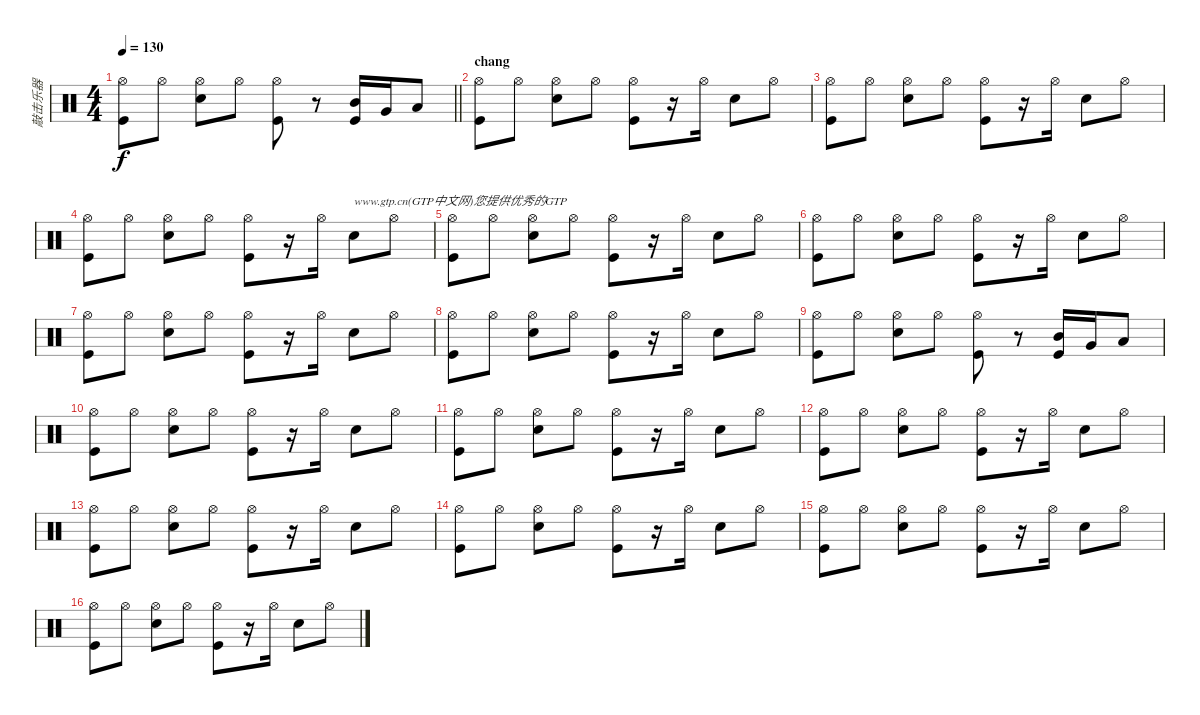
\track ("敲击乐器" "敲击乐器") {instrument percussion}
\staff {score}
\articulation defaults
\ts (4 4)
\tempo 130
\clef neutral
\barLineRight lightlight
\ks c
("Hi-Hat (open)" "Kick (hit)").8{dy f} "Hi-Hat (open)".8 ("Hi-Hat (open)" "Snare (hit) 2").8 "Hi-Hat (open)".8 ("Hi-Hat (open)" "Kick (hit)").8 r.8 ("Mid Tom (hit)" "Kick (hit)").16 "Very Low Tom (hit)".16 "Low Floor Tom (hit)".8 |
\section ("" "chang")
("Hi-Hat (open)" "Kick (hit)").8 "Hi-Hat (open)".8 ("Hi-Hat (open)" "Snare (hit) 2").8 "Hi-Hat (open)".8 ("Hi-Hat (open)" "Kick (hit)").8 r.16 "Hi-Hat (open)".16 "Snare (hit) 2".8 "Hi-Hat (open)".8 |
("Hi-Hat (open)" "Kick (hit)").8 "Hi-Hat (open)".8 ("Hi-Hat (open)" "Snare (hit) 2").8 "Hi-Hat (open)".8 ("Hi-Hat (open)" "Kick (hit)").8 r.16 "Hi-Hat (open)".16 "Snare (hit) 2".8 "Hi-Hat (open)".8 |
("Hi-Hat (open)" "Kick (hit)").8 "Hi-Hat (open)".8 ("Hi-Hat (open)" "Snare (hit) 2").8 "Hi-Hat (open)".8 ("Hi-Hat (open)" "Kick (hit)").8 r.16 "Hi-Hat (open)".16 "Snare (hit) 2".8{txt "www.gtp.cn(GTP中文网)您提供优秀的GTP"} "Hi-Hat (open)".8 |
("Hi-Hat (open)" "Kick (hit)").8 "Hi-Hat (open)".8 ("Hi-Hat (open)" "Snare (hit) 2").8 "Hi-Hat (open)".8 ("Hi-Hat (open)" "Kick (hit)").8 r.16 "Hi-Hat (open)".16 "Snare (hit) 2".8 "Hi-Hat (open)".8 |
("Hi-Hat (open)" "Kick (hit)").8 "Hi-Hat (open)".8 ("Hi-Hat (open)" "Snare (hit) 2").8 "Hi-Hat (open)".8 ("Hi-Hat (open)" "Kick (hit)").8 r.16 "Hi-Hat (open)".16 "Snare (hit) 2".8 "Hi-Hat (open)".8 |
("Hi-Hat (open)" "Kick (hit)").8 "Hi-Hat (open)".8 ("Hi-Hat (open)" "Snare (hit) 2").8 "Hi-Hat (open)".8 ("Hi-Hat (open)" "Kick (hit)").8 r.16 "Hi-Hat (open)".16 "Snare (hit) 2".8 "Hi-Hat (open)".8 |
("Hi-Hat (open)" "Kick (hit)").8 "Hi-Hat (open)".8 ("Hi-Hat (open)" "Snare (hit) 2").8 "Hi-Hat (open)".8 ("Hi-Hat (open)" "Kick (hit)").8 r.16 "Hi-Hat (open)".16 "Snare (hit) 2".8 "Hi-Hat (open)".8 |
("Hi-Hat (open)" "Kick (hit)").8 "Hi-Hat (open)".8 ("Hi-Hat (open)" "Snare (hit) 2").8 "Hi-Hat (open)".8 ("Hi-Hat (open)" "Kick (hit)").8 r.8 ("Mid Tom (hit)" "Kick (hit)").16 "Very Low Tom (hit)".16 "Low Floor Tom (hit)".8 |
("Hi-Hat (open)" "Kick (hit)").8 "Hi-Hat (open)".8 ("Hi-Hat (open)" "Snare (hit) 2").8 "Hi-Hat (open)".8 ("Hi-Hat (open)" "Kick (hit)").8 r.16 "Hi-Hat (open)".16 "Snare (hit) 2".8 "Hi-Hat (open)".8 |
("Hi-Hat (open)" "Kick (hit)").8 "Hi-Hat (open)".8 ("Hi-Hat (open)" "Snare (hit) 2").8 "Hi-Hat (open)".8 ("Hi-Hat (open)" "Kick (hit)").8 r.16 "Hi-Hat (open)".16 "Snare (hit) 2".8 "Hi-Hat (open)".8 |
("Hi-Hat (open)" "Kick (hit)").8 "Hi-Hat (open)".8 ("Hi-Hat (open)" "Snare (hit) 2").8 "Hi-Hat (open)".8 ("Hi-Hat (open)" "Kick (hit)").8 r.16 "Hi-Hat (open)".16 "Snare (hit) 2".8 "Hi-Hat (open)".8 |
("Hi-Hat (open)" "Kick (hit)").8 "Hi-Hat (open)".8 ("Hi-Hat (open)" "Snare (hit) 2").8 "Hi-Hat (open)".8 ("Hi-Hat (open)" "Kick (hit)").8 r.16 "Hi-Hat (open)".16 "Snare (hit) 2".8 "Hi-Hat (open)".8 |
("Hi-Hat (open)" "Kick (hit)").8 "Hi-Hat (open)".8 ("Hi-Hat (open)" "Snare (hit) 2").8 "Hi-Hat (open)".8 ("Hi-Hat (open)" "Kick (hit)").8 r.16 "Hi-Hat (open)".16 "Snare (hit) 2".8 "Hi-Hat (open)".8 |
("Hi-Hat (open)" "Kick (hit)").8 "Hi-Hat (open)".8 ("Hi-Hat (open)" "Snare (hit) 2").8 "Hi-Hat (open)".8 ("Hi-Hat (open)" "Kick (hit)").8 r.16 "Hi-Hat (open)".16 "Snare (hit) 2".8 "Hi-Hat (open)".8 |
("Hi-Hat (open)" "Kick (hit)").8 "Hi-Hat (open)".8 ("Hi-Hat (open)" "Snare (hit) 2").8 "Hi-Hat (open)".8 ("Hi-Hat (open)" "Kick (hit)").8 r.16 "Hi-Hat (open)".16 "Snare (hit) 2".8 "Hi-Hat (open)".8
